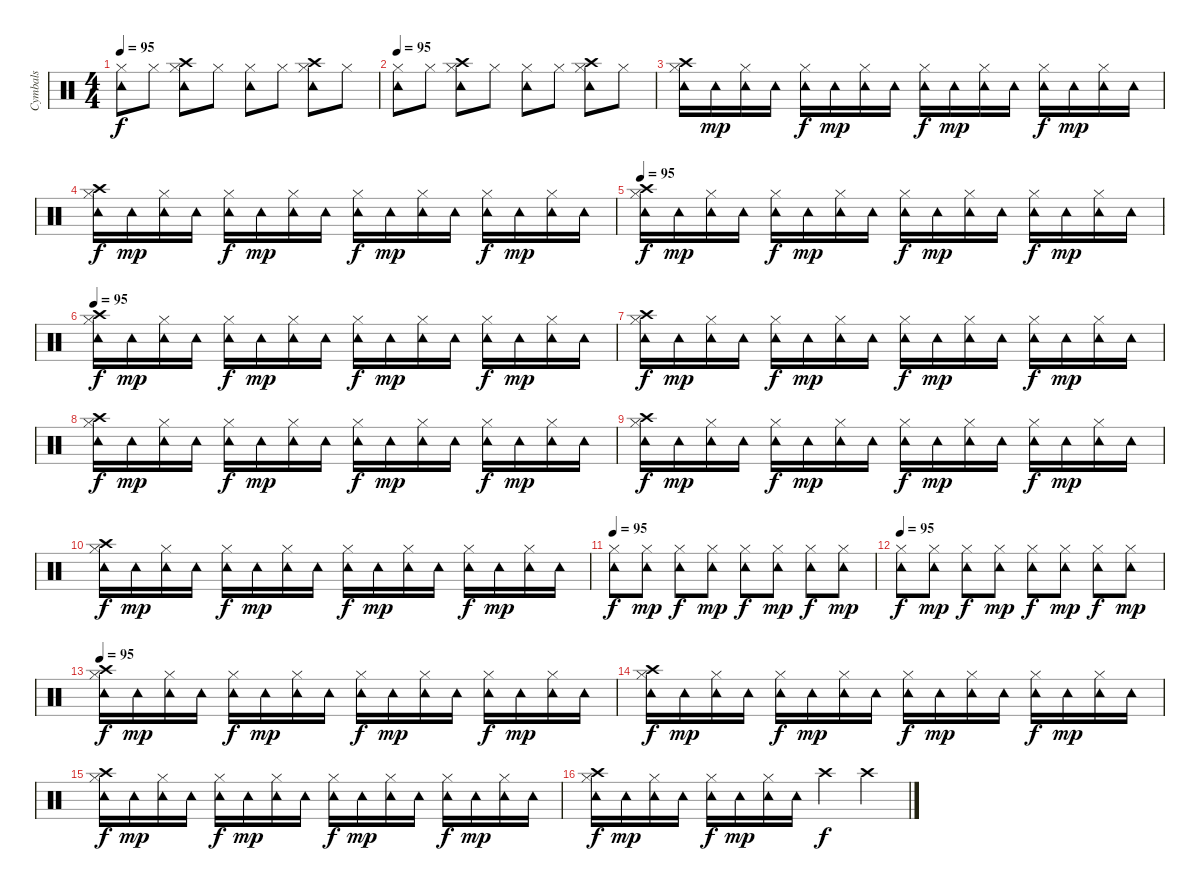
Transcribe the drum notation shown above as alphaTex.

\track ("Cymbals" "Cymbals") {instrument percussion}
\staff {score}
\articulation defaults
\ts (4 4)
\tempo 95
\clef neutral
\ks c
("Tambourine (hit)" "Hi-Hat (closed)").8{dy f} "Hi-Hat (closed)".8 ("Crash high (hit)" "Tambourine (hit)" "Hi-Hat (closed)").8 "Hi-Hat (closed)".8 ("Tambourine (hit)" "Hi-Hat (closed)").8 "Hi-Hat (closed)".8 ("Crash high (hit)" "Tambourine (hit)" "Hi-Hat (closed)").8 "Hi-Hat (closed)".8 |
\tempo 95
("Tambourine (hit)" "Hi-Hat (closed)").8 "Hi-Hat (closed)".8 ("Crash high (hit)" "Tambourine (hit)" "Hi-Hat (closed)").8 "Hi-Hat (closed)".8 ("Tambourine (hit)" "Hi-Hat (closed)").8 "Hi-Hat (closed)".8 ("Crash high (hit)" "Tambourine (hit)" "Hi-Hat (closed)").8 "Hi-Hat (closed)".8 |
("Crash high (hit)" "Tambourine (hit)" "Hi-Hat (closed)").16 "Tambourine (hit)".16{dy mp} ("Tambourine (hit)" "Hi-Hat (closed)").16 "Tambourine (hit)".16 ("Tambourine (hit)" "Hi-Hat (closed)").16{dy f} "Tambourine (hit)".16{dy mp} ("Tambourine (hit)" "Hi-Hat (closed)").16 "Tambourine (hit)".16 ("Tambourine (hit)" "Hi-Hat (closed)").16{dy f} "Tambourine (hit)".16{dy mp} ("Tambourine (hit)" "Hi-Hat (closed)").16 "Tambourine (hit)".16 ("Tambourine (hit)" "Hi-Hat (closed)").16{dy f} "Tambourine (hit)".16{dy mp} ("Tambourine (hit)" "Hi-Hat (closed)").16 "Tambourine (hit)".16 |
("Crash high (hit)" "Tambourine (hit)" "Hi-Hat (closed)").16{dy f} "Tambourine (hit)".16{dy mp} ("Tambourine (hit)" "Hi-Hat (closed)").16 "Tambourine (hit)".16 ("Tambourine (hit)" "Hi-Hat (closed)").16{dy f} "Tambourine (hit)".16{dy mp} ("Tambourine (hit)" "Hi-Hat (closed)").16 "Tambourine (hit)".16 ("Tambourine (hit)" "Hi-Hat (closed)").16{dy f} "Tambourine (hit)".16{dy mp} ("Tambourine (hit)" "Hi-Hat (closed)").16 "Tambourine (hit)".16 ("Tambourine (hit)" "Hi-Hat (closed)").16{dy f} "Tambourine (hit)".16{dy mp} ("Tambourine (hit)" "Hi-Hat (closed)").16 "Tambourine (hit)".16 |
\tempo 95
("Crash high (hit)" "Tambourine (hit)" "Hi-Hat (closed)").16{dy f} "Tambourine (hit)".16{dy mp} ("Tambourine (hit)" "Hi-Hat (closed)").16 "Tambourine (hit)".16 ("Tambourine (hit)" "Hi-Hat (closed)").16{dy f} "Tambourine (hit)".16{dy mp} ("Tambourine (hit)" "Hi-Hat (closed)").16 "Tambourine (hit)".16 ("Tambourine (hit)" "Hi-Hat (closed)").16{dy f} "Tambourine (hit)".16{dy mp} ("Tambourine (hit)" "Hi-Hat (closed)").16 "Tambourine (hit)".16 ("Tambourine (hit)" "Hi-Hat (closed)").16{dy f} "Tambourine (hit)".16{dy mp} ("Tambourine (hit)" "Hi-Hat (closed)").16 "Tambourine (hit)".16 |
\tempo 95
("Crash high (hit)" "Tambourine (hit)" "Hi-Hat (closed)").16{dy f} "Tambourine (hit)".16{dy mp} ("Tambourine (hit)" "Hi-Hat (closed)").16 "Tambourine (hit)".16 ("Tambourine (hit)" "Hi-Hat (closed)").16{dy f} "Tambourine (hit)".16{dy mp} ("Tambourine (hit)" "Hi-Hat (closed)").16 "Tambourine (hit)".16 ("Tambourine (hit)" "Hi-Hat (closed)").16{dy f} "Tambourine (hit)".16{dy mp} ("Tambourine (hit)" "Hi-Hat (closed)").16 "Tambourine (hit)".16 ("Tambourine (hit)" "Hi-Hat (closed)").16{dy f} "Tambourine (hit)".16{dy mp} ("Tambourine (hit)" "Hi-Hat (closed)").16 "Tambourine (hit)".16 |
("Crash high (hit)" "Tambourine (hit)" "Hi-Hat (closed)").16{dy f} "Tambourine (hit)".16{dy mp} ("Tambourine (hit)" "Hi-Hat (closed)").16 "Tambourine (hit)".16 ("Tambourine (hit)" "Hi-Hat (closed)").16{dy f} "Tambourine (hit)".16{dy mp} ("Tambourine (hit)" "Hi-Hat (closed)").16 "Tambourine (hit)".16 ("Tambourine (hit)" "Hi-Hat (closed)").16{dy f} "Tambourine (hit)".16{dy mp} ("Tambourine (hit)" "Hi-Hat (closed)").16 "Tambourine (hit)".16 ("Tambourine (hit)" "Hi-Hat (closed)").16{dy f} "Tambourine (hit)".16{dy mp} ("Tambourine (hit)" "Hi-Hat (closed)").16 "Tambourine (hit)".16 |
("Crash high (hit)" "Tambourine (hit)" "Hi-Hat (closed)").16{dy f} "Tambourine (hit)".16{dy mp} ("Tambourine (hit)" "Hi-Hat (closed)").16 "Tambourine (hit)".16 ("Tambourine (hit)" "Hi-Hat (closed)").16{dy f} "Tambourine (hit)".16{dy mp} ("Tambourine (hit)" "Hi-Hat (closed)").16 "Tambourine (hit)".16 ("Tambourine (hit)" "Hi-Hat (closed)").16{dy f} "Tambourine (hit)".16{dy mp} ("Tambourine (hit)" "Hi-Hat (closed)").16 "Tambourine (hit)".16 ("Tambourine (hit)" "Hi-Hat (closed)").16{dy f} "Tambourine (hit)".16{dy mp} ("Tambourine (hit)" "Hi-Hat (closed)").16 "Tambourine (hit)".16 |
("Crash high (hit)" "Tambourine (hit)" "Hi-Hat (closed)").16{dy f} "Tambourine (hit)".16{dy mp} ("Tambourine (hit)" "Hi-Hat (closed)").16 "Tambourine (hit)".16 ("Tambourine (hit)" "Hi-Hat (closed)").16{dy f} "Tambourine (hit)".16{dy mp} ("Tambourine (hit)" "Hi-Hat (closed)").16 "Tambourine (hit)".16 ("Tambourine (hit)" "Hi-Hat (closed)").16{dy f} "Tambourine (hit)".16{dy mp} ("Tambourine (hit)" "Hi-Hat (closed)").16 "Tambourine (hit)".16 ("Tambourine (hit)" "Hi-Hat (closed)").16{dy f} "Tambourine (hit)".16{dy mp} ("Tambourine (hit)" "Hi-Hat (closed)").16 "Tambourine (hit)".16 |
("Crash high (hit)" "Tambourine (hit)" "Hi-Hat (closed)").16{dy f} "Tambourine (hit)".16{dy mp} ("Tambourine (hit)" "Hi-Hat (closed)").16 "Tambourine (hit)".16 ("Tambourine (hit)" "Hi-Hat (closed)").16{dy f} "Tambourine (hit)".16{dy mp} ("Tambourine (hit)" "Hi-Hat (closed)").16 "Tambourine (hit)".16 ("Tambourine (hit)" "Hi-Hat (closed)").16{dy f} "Tambourine (hit)".16{dy mp} ("Tambourine (hit)" "Hi-Hat (closed)").16 "Tambourine (hit)".16 ("Tambourine (hit)" "Hi-Hat (closed)").16{dy f} "Tambourine (hit)".16{dy mp} ("Tambourine (hit)" "Hi-Hat (closed)").16 "Tambourine (hit)".16 |
\tempo 95
("Tambourine (hit)" "Hi-Hat (closed)").8{dy f} ("Tambourine (hit)" "Hi-Hat (closed)").8{dy mp} ("Tambourine (hit)" "Hi-Hat (closed)").8{dy f} ("Tambourine (hit)" "Hi-Hat (closed)").8{dy mp} ("Tambourine (hit)" "Hi-Hat (closed)").8{dy f} ("Tambourine (hit)" "Hi-Hat (closed)").8{dy mp} ("Tambourine (hit)" "Hi-Hat (closed)").8{dy f} ("Tambourine (hit)" "Hi-Hat (closed)").8{dy mp} |
\tempo 95
("Tambourine (hit)" "Hi-Hat (closed)").8{dy f} ("Tambourine (hit)" "Hi-Hat (closed)").8{dy mp} ("Tambourine (hit)" "Hi-Hat (closed)").8{dy f} ("Tambourine (hit)" "Hi-Hat (closed)").8{dy mp} ("Tambourine (hit)" "Hi-Hat (closed)").8{dy f} ("Tambourine (hit)" "Hi-Hat (closed)").8{dy mp} ("Tambourine (hit)" "Hi-Hat (closed)").8{dy f} ("Tambourine (hit)" "Hi-Hat (closed)").8{dy mp} |
\tempo 95
("Crash high (hit)" "Tambourine (hit)" "Hi-Hat (closed)").16{dy f} "Tambourine (hit)".16{dy mp} ("Tambourine (hit)" "Hi-Hat (closed)").16 "Tambourine (hit)".16 ("Tambourine (hit)" "Hi-Hat (closed)").16{dy f} "Tambourine (hit)".16{dy mp} ("Tambourine (hit)" "Hi-Hat (closed)").16 "Tambourine (hit)".16 ("Tambourine (hit)" "Hi-Hat (closed)").16{dy f} "Tambourine (hit)".16{dy mp} ("Tambourine (hit)" "Hi-Hat (closed)").16 "Tambourine (hit)".16 ("Tambourine (hit)" "Hi-Hat (closed)").16{dy f} "Tambourine (hit)".16{dy mp} ("Tambourine (hit)" "Hi-Hat (closed)").16 "Tambourine (hit)".16 |
("Crash high (hit)" "Tambourine (hit)" "Hi-Hat (closed)").16{dy f} "Tambourine (hit)".16{dy mp} ("Tambourine (hit)" "Hi-Hat (closed)").16 "Tambourine (hit)".16 ("Tambourine (hit)" "Hi-Hat (closed)").16{dy f} "Tambourine (hit)".16{dy mp} ("Tambourine (hit)" "Hi-Hat (closed)").16 "Tambourine (hit)".16 ("Tambourine (hit)" "Hi-Hat (closed)").16{dy f} "Tambourine (hit)".16{dy mp} ("Tambourine (hit)" "Hi-Hat (closed)").16 "Tambourine (hit)".16 ("Tambourine (hit)" "Hi-Hat (closed)").16{dy f} "Tambourine (hit)".16{dy mp} ("Tambourine (hit)" "Hi-Hat (closed)").16 "Tambourine (hit)".16 |
("Crash high (hit)" "Tambourine (hit)" "Hi-Hat (closed)").16{dy f} "Tambourine (hit)".16{dy mp} ("Tambourine (hit)" "Hi-Hat (closed)").16 "Tambourine (hit)".16 ("Tambourine (hit)" "Hi-Hat (closed)").16{dy f} "Tambourine (hit)".16{dy mp} ("Tambourine (hit)" "Hi-Hat (closed)").16 "Tambourine (hit)".16 ("Tambourine (hit)" "Hi-Hat (closed)").16{dy f} "Tambourine (hit)".16{dy mp} ("Tambourine (hit)" "Hi-Hat (closed)").16 "Tambourine (hit)".16 ("Tambourine (hit)" "Hi-Hat (closed)").16{dy f} "Tambourine (hit)".16{dy mp} ("Tambourine (hit)" "Hi-Hat (closed)").16 "Tambourine (hit)".16 |
("Crash high (hit)" "Tambourine (hit)" "Hi-Hat (closed)").16{dy f} "Tambourine (hit)".16{dy mp} ("Tambourine (hit)" "Hi-Hat (closed)").16 "Tambourine (hit)".16 ("Tambourine (hit)" "Hi-Hat (closed)").16{dy f} "Tambourine (hit)".16{dy mp} ("Tambourine (hit)" "Hi-Hat (closed)").16 "Tambourine (hit)".16 "Crash high (hit)".4{dy f} "Crash high (hit)".4
